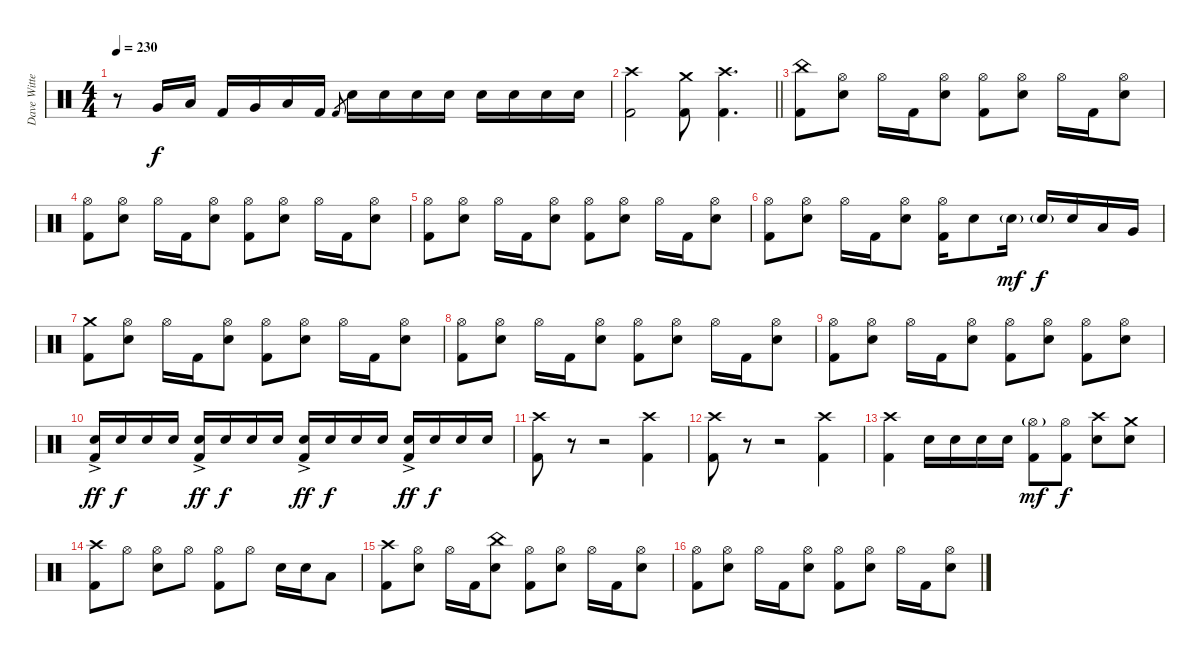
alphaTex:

\track ("Dave Witte" "Dave Witte") {instrument percussion}
\staff {score}
\articulation defaults
\ts (4 4)
\tempo 230
\clef neutral
\ks c
r.8{dy f} "Very Low Tom (hit)".16 "Low Floor Tom (hit)".16 "Kick (hit) 2".16 "Very Low Tom (hit)".16 "Low Floor Tom (hit)".16 "Kick (hit) 2".16 "Kick (hit) 2".8{gr} "Electric Snare (hit)".16 "Electric Snare (hit)".16 "Electric Snare (hit)".16 "Electric Snare (hit)".16 "Electric Snare (hit)".16 "Electric Snare (hit)".16 "Electric Snare (hit)".16 "Electric Snare (hit)".16 |
\barLineRight lightlight
("Crash high (hit)" "Kick (hit) 2").2 ("Crash medium (hit)" "Kick (hit) 2").8 ("Crash high (hit)" "Kick (hit) 2").4{d} |
("China (hit)" "Kick (hit) 2").8 ("Hi-Hat (open)" "Electric Snare (hit)").8 "Hi-Hat (open)".16 "Kick (hit) 2".16 ("Hi-Hat (open)" "Electric Snare (hit)").8 ("Hi-Hat (open)" "Kick (hit) 2").8 ("Hi-Hat (open)" "Electric Snare (hit)").8 "Hi-Hat (open)".16 "Kick (hit) 2".16 ("Hi-Hat (open)" "Electric Snare (hit)").8 |
("Hi-Hat (open)" "Kick (hit) 2").8 ("Hi-Hat (open)" "Electric Snare (hit)").8 "Hi-Hat (open)".16 "Kick (hit) 2".16 ("Hi-Hat (open)" "Electric Snare (hit)").8 ("Hi-Hat (open)" "Kick (hit) 2").8 ("Hi-Hat (open)" "Electric Snare (hit)").8 "Hi-Hat (open)".16 "Kick (hit) 2".16 ("Hi-Hat (open)" "Electric Snare (hit)").8 |
("Hi-Hat (open)" "Kick (hit) 2").8 ("Hi-Hat (open)" "Electric Snare (hit)").8 "Hi-Hat (open)".16 "Kick (hit) 2".16 ("Hi-Hat (open)" "Electric Snare (hit)").8 ("Hi-Hat (open)" "Kick (hit) 2").8 ("Hi-Hat (open)" "Electric Snare (hit)").8 "Hi-Hat (open)".16 "Kick (hit) 2".16 ("Hi-Hat (open)" "Electric Snare (hit)").8 |
("Hi-Hat (open)" "Kick (hit) 2").8 ("Hi-Hat (open)" "Electric Snare (hit)").8 "Hi-Hat (open)".16 "Kick (hit) 2".16 ("Hi-Hat (open)" "Electric Snare (hit)").8 ("Hi-Hat (open)" "Kick (hit) 2").16 "Electric Snare (hit)".8 "Electric Snare (hit)"{g}.16{dy mf} "Electric Snare (hit)"{g}.16{dy f} "Electric Snare (hit)".16 "Low Tom (hit)".16 "Very Low Tom (hit)".16 |
("Crash medium (hit)" "Kick (hit) 2").8 ("Hi-Hat (open)" "Electric Snare (hit)").8 "Hi-Hat (open)".16 "Kick (hit) 2".16 ("Hi-Hat (open)" "Electric Snare (hit)").8 ("Hi-Hat (open)" "Kick (hit) 2").8 ("Hi-Hat (open)" "Electric Snare (hit)").8 "Hi-Hat (open)".16 "Kick (hit) 2".16 ("Hi-Hat (open)" "Electric Snare (hit)").8 |
("Hi-Hat (open)" "Kick (hit) 2").8 ("Hi-Hat (open)" "Electric Snare (hit)").8 "Hi-Hat (open)".16 "Kick (hit) 2".16 ("Hi-Hat (open)" "Electric Snare (hit)").8 ("Hi-Hat (open)" "Kick (hit) 2").8 ("Hi-Hat (open)" "Electric Snare (hit)").8 "Hi-Hat (open)".16 "Kick (hit) 2".16 ("Hi-Hat (open)" "Electric Snare (hit)").8 |
("Hi-Hat (open)" "Kick (hit) 2").8 ("Hi-Hat (open)" "Electric Snare (hit)").8 "Hi-Hat (open)".16 "Kick (hit) 2".16 ("Hi-Hat (open)" "Electric Snare (hit)").8 ("Hi-Hat (open)" "Kick (hit) 2").8 ("Hi-Hat (open)" "Electric Snare (hit)").8 ("Hi-Hat (open)" "Kick (hit) 2").8 ("Hi-Hat (open)" "Electric Snare (hit)").8 |
("Electric Snare (hit)"{ac} "Kick (hit) 2").16{dy ff} "Electric Snare (hit)".16{dy f} "Electric Snare (hit)".16 "Electric Snare (hit)".16 ("Electric Snare (hit)"{ac} "Kick (hit) 2").16{dy ff} "Electric Snare (hit)".16{dy f} "Electric Snare (hit)".16 "Electric Snare (hit)".16 ("Electric Snare (hit)"{ac} "Kick (hit) 2").16{dy ff} "Electric Snare (hit)".16{dy f} "Electric Snare (hit)".16 "Electric Snare (hit)".16 ("Electric Snare (hit)"{ac} "Kick (hit) 2").16{dy ff} "Electric Snare (hit)".16{dy f} "Electric Snare (hit)".16 "Electric Snare (hit)".16 |
("Crash high (hit)" "Kick (hit) 2").8 r.8{volume 0} r.2 ("Crash high (hit)" "Kick (hit) 2").4{volume 14} |
("Crash high (hit)" "Kick (hit) 2").8 r.8{volume 0} r.2 ("Crash high (hit)" "Kick (hit) 2").4{volume 14} |
("Crash high (hit)" "Kick (hit) 2").4 "Electric Snare (hit)".16 "Electric Snare (hit)".16 "Electric Snare (hit)".16 "Electric Snare (hit)".16 ("Hi-Hat (open)"{g} "Kick (hit) 2").8{dy mf} ("Hi-Hat (open)" "Kick (hit) 2").8{dy f} ("Crash high (hit)" "Electric Snare (hit)").8 ("Crash medium (hit)" "Electric Snare (hit)").8 |
("Crash high (hit)" "Kick (hit) 2").8 "Hi-Hat (open)".8 ("Hi-Hat (open)" "Electric Snare (hit)").8 "Hi-Hat (open)".8 ("Hi-Hat (open)" "Kick (hit) 2").8 "Hi-Hat (open)".8 "Electric Snare (hit)".16 "Electric Snare (hit)".16 "Low Tom (hit)".8 |
("Crash high (hit)" "Kick (hit) 2").8 ("Hi-Hat (open)" "Electric Snare (hit)").8 "Hi-Hat (open)".16 "Kick (hit) 2".16 ("China (hit)" "Electric Snare (hit)").8 ("Hi-Hat (open)" "Kick (hit) 2").8 ("Hi-Hat (open)" "Electric Snare (hit)").8 "Hi-Hat (open)".16 "Kick (hit) 2".16 ("Hi-Hat (open)" "Electric Snare (hit)").8 |
("Hi-Hat (open)" "Kick (hit) 2").8 ("Hi-Hat (open)" "Electric Snare (hit)").8 "Hi-Hat (open)".16 "Kick (hit) 2".16 ("Hi-Hat (open)" "Electric Snare (hit)").8 ("Hi-Hat (open)" "Kick (hit) 2").8 ("Hi-Hat (open)" "Electric Snare (hit)").8 "Hi-Hat (open)".16 "Kick (hit) 2".16 ("Hi-Hat (open)" "Electric Snare (hit)").8
